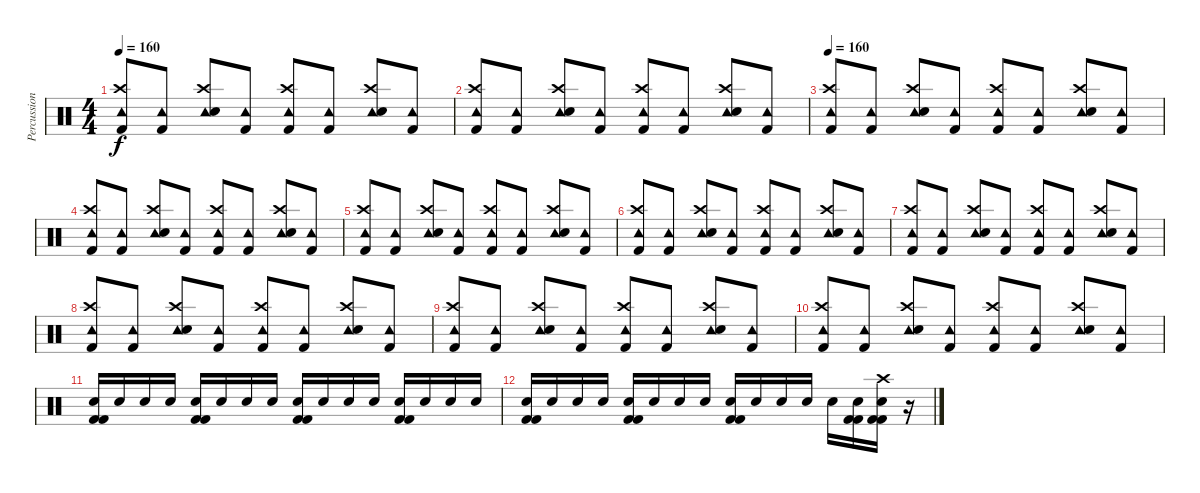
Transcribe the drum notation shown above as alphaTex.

\track ("Percussion" "Percussion") {instrument percussion}
\staff {score}
\articulation defaults
\ts (4 4)
\tempo 160
\clef neutral
\ks c
("Tambourine (hit)" "Crash high (hit)" "Kick (hit) 2").8{dy f} ("Tambourine (hit)" "Kick (hit) 2").8 ("Tambourine (hit)" "Crash high (hit)" "Snare (hit) 2").8 ("Tambourine (hit)" "Kick (hit) 2").8 ("Tambourine (hit)" "Crash high (hit)" "Kick (hit) 2").8 ("Tambourine (hit)" "Kick (hit) 2").8 ("Tambourine (hit)" "Crash high (hit)" "Snare (hit) 2").8 ("Tambourine (hit)" "Kick (hit) 2").8 |
("Tambourine (hit)" "Crash high (hit)" "Kick (hit) 2").8 ("Tambourine (hit)" "Kick (hit) 2").8 ("Tambourine (hit)" "Crash high (hit)" "Snare (hit) 2").8 ("Tambourine (hit)" "Kick (hit) 2").8 ("Tambourine (hit)" "Crash high (hit)" "Kick (hit) 2").8 ("Tambourine (hit)" "Kick (hit) 2").8 ("Tambourine (hit)" "Crash high (hit)" "Snare (hit) 2").8 ("Tambourine (hit)" "Kick (hit) 2").8 |
\tempo 160
("Tambourine (hit)" "Crash high (hit)" "Kick (hit) 2").8 ("Tambourine (hit)" "Kick (hit) 2").8 ("Tambourine (hit)" "Crash high (hit)" "Snare (hit) 2").8 ("Tambourine (hit)" "Kick (hit) 2").8 ("Tambourine (hit)" "Crash high (hit)" "Kick (hit) 2").8 ("Tambourine (hit)" "Kick (hit) 2").8 ("Tambourine (hit)" "Crash high (hit)" "Snare (hit) 2").8 ("Tambourine (hit)" "Kick (hit) 2").8 |
("Tambourine (hit)" "Crash high (hit)" "Kick (hit) 2").8 ("Tambourine (hit)" "Kick (hit) 2").8 ("Tambourine (hit)" "Crash high (hit)" "Snare (hit) 2").8 ("Tambourine (hit)" "Kick (hit) 2").8 ("Tambourine (hit)" "Crash high (hit)" "Kick (hit) 2").8 ("Tambourine (hit)" "Kick (hit) 2").8 ("Tambourine (hit)" "Crash high (hit)" "Snare (hit) 2").8 ("Tambourine (hit)" "Kick (hit) 2").8 |
("Tambourine (hit)" "Crash high (hit)" "Kick (hit) 2").8 ("Tambourine (hit)" "Kick (hit) 2").8 ("Tambourine (hit)" "Crash high (hit)" "Snare (hit) 2").8 ("Tambourine (hit)" "Kick (hit) 2").8 ("Tambourine (hit)" "Crash high (hit)" "Kick (hit) 2").8 ("Tambourine (hit)" "Kick (hit) 2").8 ("Tambourine (hit)" "Crash high (hit)" "Snare (hit) 2").8 ("Tambourine (hit)" "Kick (hit) 2").8 |
("Tambourine (hit)" "Crash high (hit)" "Kick (hit) 2").8 ("Tambourine (hit)" "Kick (hit) 2").8 ("Tambourine (hit)" "Crash high (hit)" "Snare (hit) 2").8 ("Tambourine (hit)" "Kick (hit) 2").8 ("Tambourine (hit)" "Crash high (hit)" "Kick (hit) 2").8 ("Tambourine (hit)" "Kick (hit) 2").8 ("Tambourine (hit)" "Crash high (hit)" "Snare (hit) 2").8 ("Tambourine (hit)" "Kick (hit) 2").8 |
("Tambourine (hit)" "Crash high (hit)" "Kick (hit) 2").8 ("Tambourine (hit)" "Kick (hit) 2").8 ("Tambourine (hit)" "Crash high (hit)" "Snare (hit) 2").8 ("Tambourine (hit)" "Kick (hit) 2").8 ("Tambourine (hit)" "Crash high (hit)" "Kick (hit) 2").8 ("Tambourine (hit)" "Kick (hit) 2").8 ("Tambourine (hit)" "Crash high (hit)" "Snare (hit) 2").8 ("Tambourine (hit)" "Kick (hit) 2").8 |
("Tambourine (hit)" "Crash high (hit)" "Kick (hit) 2").8 ("Tambourine (hit)" "Kick (hit) 2").8 ("Tambourine (hit)" "Crash high (hit)" "Snare (hit) 2").8 ("Tambourine (hit)" "Kick (hit) 2").8 ("Tambourine (hit)" "Crash high (hit)" "Kick (hit) 2").8 ("Tambourine (hit)" "Kick (hit) 2").8 ("Tambourine (hit)" "Crash high (hit)" "Snare (hit) 2").8 ("Tambourine (hit)" "Kick (hit) 2").8 |
("Tambourine (hit)" "Crash high (hit)" "Kick (hit) 2").8 ("Tambourine (hit)" "Kick (hit) 2").8 ("Tambourine (hit)" "Crash high (hit)" "Snare (hit) 2").8 ("Tambourine (hit)" "Kick (hit) 2").8 ("Tambourine (hit)" "Crash high (hit)" "Kick (hit) 2").8 ("Tambourine (hit)" "Kick (hit) 2").8 ("Tambourine (hit)" "Crash high (hit)" "Snare (hit) 2").8 ("Tambourine (hit)" "Kick (hit) 2").8 |
("Tambourine (hit)" "Crash high (hit)" "Kick (hit) 2").8 ("Tambourine (hit)" "Kick (hit) 2").8 ("Tambourine (hit)" "Crash high (hit)" "Snare (hit) 2").8 ("Tambourine (hit)" "Kick (hit) 2").8 ("Tambourine (hit)" "Crash high (hit)" "Kick (hit) 2").8 ("Tambourine (hit)" "Kick (hit) 2").8 ("Tambourine (hit)" "Crash high (hit)" "Snare (hit) 2").8 ("Tambourine (hit)" "Kick (hit) 2").8 |
("Kick (hit) 2" "Snare (hit) 2" "Kick (hit) 2").16 "Snare (hit) 2".16 "Snare (hit) 2".16 "Snare (hit) 2".16 ("Kick (hit) 2" "Snare (hit) 2" "Kick (hit) 2").16 "Snare (hit) 2".16 "Snare (hit) 2".16 "Snare (hit) 2".16 ("Kick (hit) 2" "Snare (hit) 2" "Kick (hit) 2").16 "Snare (hit) 2".16 "Snare (hit) 2".16 "Snare (hit) 2".16 ("Kick (hit) 2" "Snare (hit) 2" "Kick (hit) 2").16 "Snare (hit) 2".16 "Snare (hit) 2".16 "Snare (hit) 2".16 |
("Kick (hit) 2" "Snare (hit) 2" "Kick (hit) 2").16 "Snare (hit) 2".16 "Snare (hit) 2".16 "Snare (hit) 2".16 ("Kick (hit) 2" "Snare (hit) 2" "Kick (hit) 2").16 "Snare (hit) 2".16 "Snare (hit) 2".16 "Snare (hit) 2".16 ("Kick (hit) 2" "Snare (hit) 2" "Kick (hit) 2").16 "Snare (hit) 2".16 "Snare (hit) 2".16 "Snare (hit) 2".16 "Snare (hit) 2".16 ("Kick (hit) 2" "Snare (hit) 2" "Kick (hit) 2").16 ("Crash high (hit)" "Kick (hit) 2" "Snare (hit) 2" "Kick (hit) 2").16 r.16
